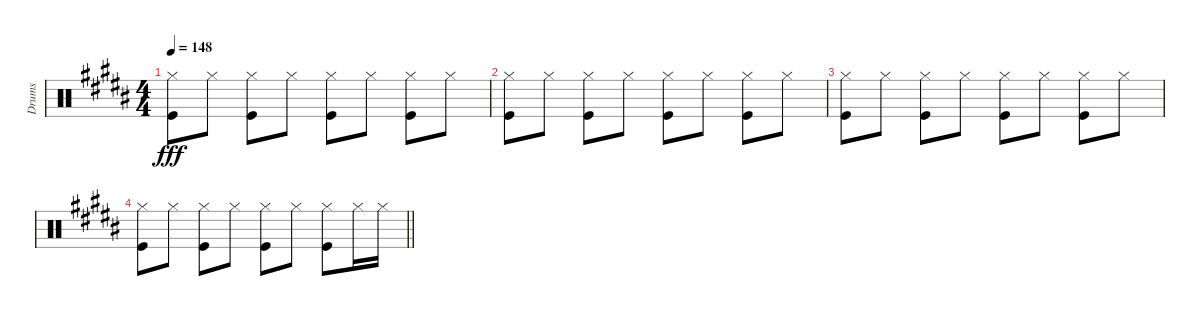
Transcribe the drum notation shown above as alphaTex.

\track ("Drums" "Drums") {instrument percussion}
\staff {score}
\articulation defaults
\ts (4 4)
\tempo 148
\clef neutral
\ks b
("Hi-Hat (closed)" "Kick (hit)").8{dy fff} "Hi-Hat (closed)".8 ("Hi-Hat (closed)" "Kick (hit)").8 "Hi-Hat (closed)".8 ("Hi-Hat (closed)" "Kick (hit)").8 "Hi-Hat (closed)".8 ("Hi-Hat (closed)" "Kick (hit)").8 "Hi-Hat (closed)".8 |
("Hi-Hat (closed)" "Kick (hit)").8 "Hi-Hat (closed)".8 ("Hi-Hat (closed)" "Kick (hit)").8 "Hi-Hat (closed)".8 ("Hi-Hat (closed)" "Kick (hit)").8 "Hi-Hat (closed)".8 ("Hi-Hat (closed)" "Kick (hit)").8 "Hi-Hat (closed)".8 |
("Hi-Hat (closed)" "Kick (hit)").8 "Hi-Hat (closed)".8 ("Hi-Hat (closed)" "Kick (hit)").8 "Hi-Hat (closed)".8 ("Hi-Hat (closed)" "Kick (hit)").8 "Hi-Hat (closed)".8 ("Hi-Hat (closed)" "Kick (hit)").8 "Hi-Hat (closed)".8 |
\barLineRight lightlight
("Hi-Hat (closed)" "Kick (hit)").8 "Hi-Hat (closed)".8 ("Hi-Hat (closed)" "Kick (hit)").8 "Hi-Hat (closed)".8 ("Hi-Hat (closed)" "Kick (hit)").8 "Hi-Hat (closed)".8 ("Hi-Hat (closed)" "Kick (hit)").8 "Hi-Hat (closed)".16 "Hi-Hat (closed)".16
